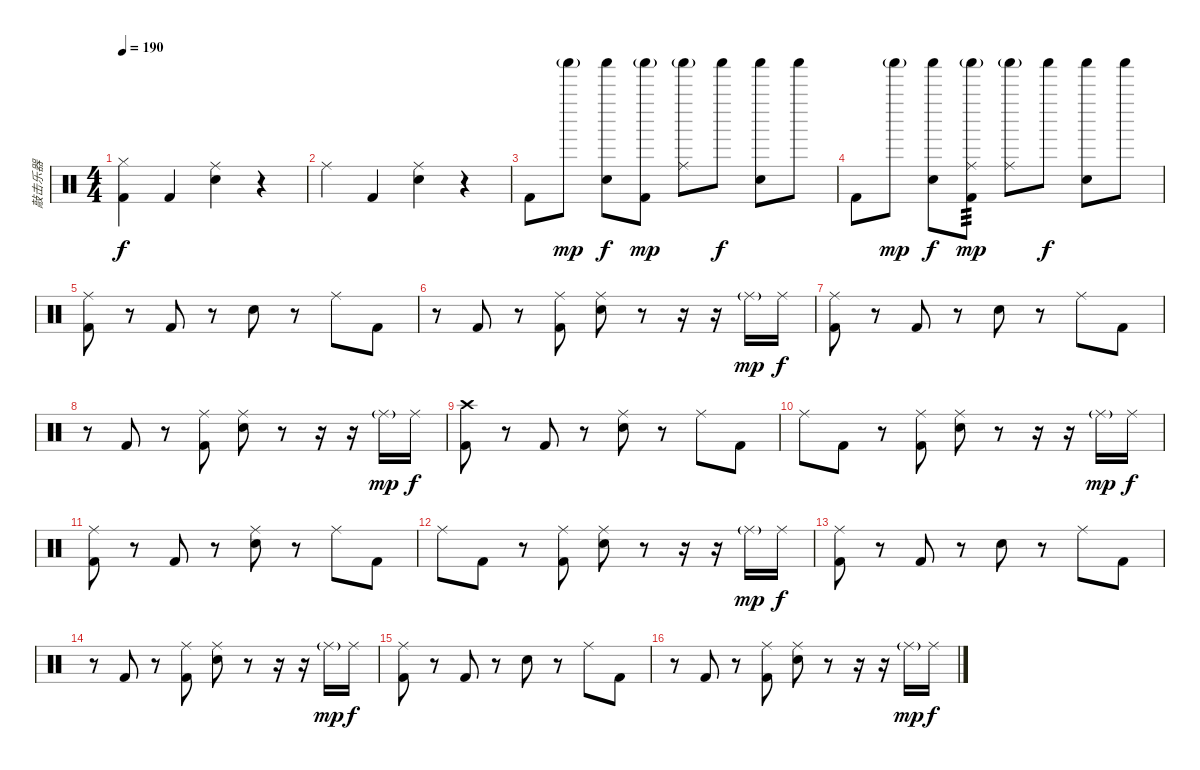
\track ("敲击乐器" "敲击乐器") {instrument percussion}
\staff {score}
\articulation defaults
\ts (4 4)
\tempo 190
\clef neutral
\ks c
("Kick (hit) 2" "Hi-Hat (closed)").4{dy f} "Kick (hit) 2".4 ("Electric Snare (hit)" "Ride (middle)").4 r.4 |
"Ride (middle)".4 "Kick (hit) 2".4 ("Electric Snare (hit)" "Ride (middle)").4 r.4 |
"Kick (hit) 2".8 "Shaker (hit)"{g}.8{dy mp} ("Shaker (hit)" "Hand Clap (hit)").8{dy f} ("Shaker (hit)"{g} "Kick (hit) 2").8{dy mp} ("Ride (middle)" "Shaker (hit)"{g}).8 "Shaker (hit)".8{dy f} ("Shaker (hit)" "Hand Clap (hit)").8 "Shaker (hit)".8 |
"Kick (hit) 2".8 "Shaker (hit)"{g}.8{dy mp} ("Shaker (hit)" "Hand Clap (hit)").8{dy f} ("Ride (middle)" "Shaker (hit)"{g} "Kick (hit) 2").8{tp 3 dy mp} ("Ride (middle)" "Shaker (hit)"{g}).8 "Shaker (hit)".8{dy f} ("Shaker (hit)" "Hand Clap (hit)").8 "Shaker (hit)".8 |
("Ride (middle)" "Kick (hit) 2").8 r.8 "Kick (hit) 2".8 r.8 "Electric Snare (hit)".8 r.8 "Ride (middle)".8 "Kick (hit) 2".8 |
r.8 "Kick (hit) 2".8 r.8 ("Ride (middle)" "Kick (hit) 2").8 ("Ride (middle)" "Electric Snare (hit)").8 r.8 r.16 r.16 "Ride (middle)"{g}.16{dy mp} "Ride (middle)".16{dy f} |
("Ride (middle)" "Kick (hit) 2").8 r.8 "Kick (hit) 2".8 r.8 "Electric Snare (hit)".8 r.8 "Ride (middle)".8 "Kick (hit) 2".8 |
r.8 "Kick (hit) 2".8 r.8 ("Ride (middle)" "Kick (hit) 2").8 ("Ride (middle)" "Electric Snare (hit)").8 r.8 r.16 r.16 "Ride (middle)"{g}.16{dy mp} "Ride (middle)".16{dy f} |
("Crash high (hit)" "Kick (hit) 2").8 r.8 "Kick (hit) 2".8 r.8 ("Ride (middle)" "Electric Snare (hit)").8 r.8 "Ride (middle)".8 "Kick (hit) 2".8 |
"Ride (middle)".8 "Kick (hit) 2".8 r.8 ("Ride (middle)" "Kick (hit) 2").8 ("Ride (middle)" "Electric Snare (hit)").8 r.8 r.16 r.16 "Ride (middle)"{g}.16{dy mp} "Ride (middle)".16{dy f} |
("Ride (middle)" "Kick (hit) 2").8 r.8 "Kick (hit) 2".8 r.8 ("Ride (middle)" "Electric Snare (hit)").8 r.8 "Ride (middle)".8 "Kick (hit) 2".8 |
"Ride (middle)".8 "Kick (hit) 2".8 r.8 ("Ride (middle)" "Kick (hit) 2").8 ("Ride (middle)" "Electric Snare (hit)").8 r.8 r.16 r.16 "Ride (middle)"{g}.16{dy mp} "Ride (middle)".16{dy f} |
("Ride (middle)" "Kick (hit) 2").8 r.8 "Kick (hit) 2".8 r.8 "Electric Snare (hit)".8 r.8 "Ride (middle)".8 "Kick (hit) 2".8 |
r.8 "Kick (hit) 2".8 r.8 ("Ride (middle)" "Kick (hit) 2").8 ("Ride (middle)" "Electric Snare (hit)").8 r.8 r.16 r.16 "Ride (middle)"{g}.16{dy mp} "Ride (middle)".16{dy f} |
("Ride (middle)" "Kick (hit) 2").8 r.8 "Kick (hit) 2".8 r.8 "Electric Snare (hit)".8 r.8 "Ride (middle)".8 "Kick (hit) 2".8 |
r.8 "Kick (hit) 2".8 r.8 ("Ride (middle)" "Kick (hit) 2").8 ("Ride (middle)" "Electric Snare (hit)").8 r.8 r.16 r.16 "Ride (middle)"{g}.16{dy mp} "Ride (middle)".16{dy f}
